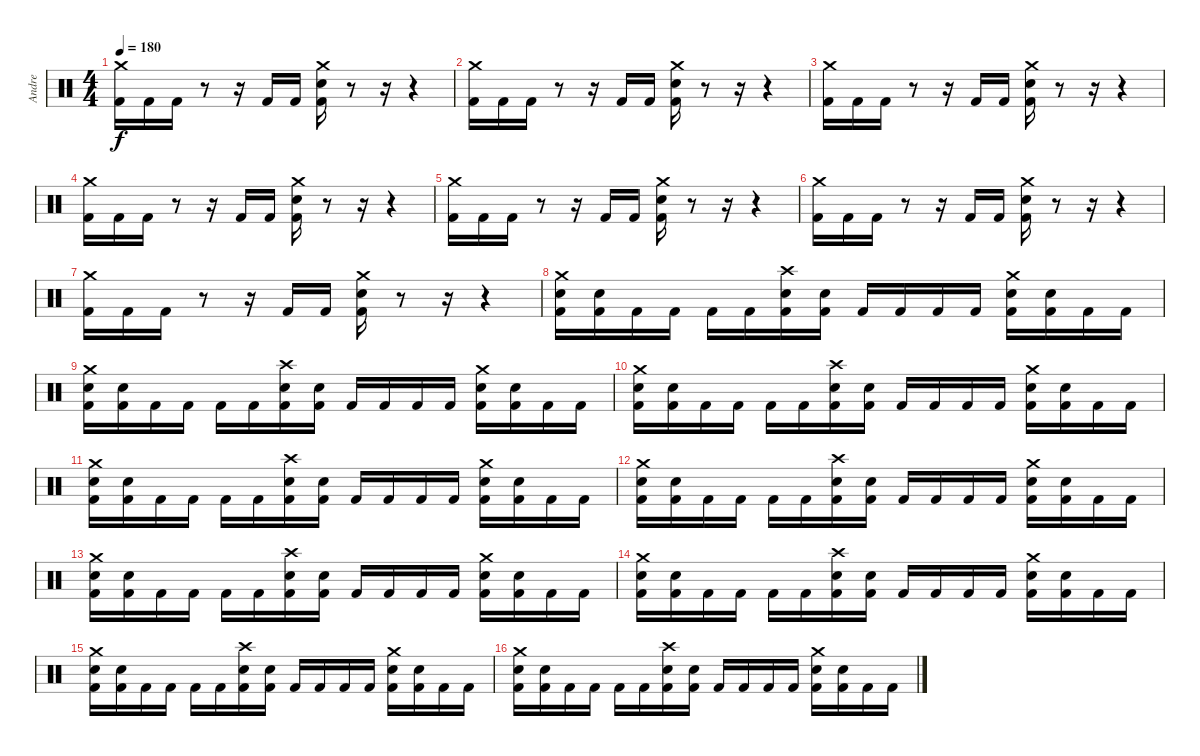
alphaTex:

\track ("Andre" "Andre") {instrument percussion}
\staff {score}
\articulation defaults
\ts (4 4)
\tempo 180
\clef neutral
\ks c
("Crash medium (hit)" "Kick (hit) 2").16{dy f} "Kick (hit) 2".16 "Kick (hit) 2".16 r.8 r.16 "Kick (hit) 2".16 "Kick (hit) 2".16 ("Crash medium (hit)" "Snare (hit) 2" "Kick (hit) 2").16 r.8 r.16 r.4 |
("Crash medium (hit)" "Kick (hit) 2").16 "Kick (hit) 2".16 "Kick (hit) 2".16 r.8 r.16 "Kick (hit) 2".16 "Kick (hit) 2".16 ("Crash medium (hit)" "Snare (hit) 2" "Kick (hit) 2").16 r.8 r.16 r.4 |
("Crash medium (hit)" "Kick (hit) 2").16 "Kick (hit) 2".16 "Kick (hit) 2".16 r.8 r.16 "Kick (hit) 2".16 "Kick (hit) 2".16 ("Crash medium (hit)" "Snare (hit) 2" "Kick (hit) 2").16 r.8 r.16 r.4 |
("Crash medium (hit)" "Kick (hit) 2").16 "Kick (hit) 2".16 "Kick (hit) 2".16 r.8 r.16 "Kick (hit) 2".16 "Kick (hit) 2".16 ("Crash medium (hit)" "Snare (hit) 2" "Kick (hit) 2").16 r.8 r.16 r.4 |
("Crash medium (hit)" "Kick (hit) 2").16 "Kick (hit) 2".16 "Kick (hit) 2".16 r.8 r.16 "Kick (hit) 2".16 "Kick (hit) 2".16 ("Crash medium (hit)" "Snare (hit) 2" "Kick (hit) 2").16 r.8 r.16 r.4 |
("Crash medium (hit)" "Kick (hit) 2").16 "Kick (hit) 2".16 "Kick (hit) 2".16 r.8 r.16 "Kick (hit) 2".16 "Kick (hit) 2".16 ("Crash medium (hit)" "Snare (hit) 2" "Kick (hit) 2").16 r.8 r.16 r.4 |
("Crash medium (hit)" "Kick (hit) 2").16 "Kick (hit) 2".16 "Kick (hit) 2".16 r.8 r.16 "Kick (hit) 2".16 "Kick (hit) 2".16 ("Crash medium (hit)" "Snare (hit) 2" "Kick (hit) 2").16 r.8 r.16 r.4 |
("Crash medium (hit)" "Snare (hit) 2" "Kick (hit) 2").16 ("Snare (hit) 2" "Kick (hit) 2").16 "Kick (hit) 2".16 "Kick (hit) 2".16 "Kick (hit) 2".16 "Kick (hit) 2".16 ("Crash high (hit)" "Snare (hit) 2" "Kick (hit) 2").16 ("Snare (hit) 2" "Kick (hit) 2").16 "Kick (hit) 2".16 "Kick (hit) 2".16 "Kick (hit) 2".16 "Kick (hit) 2".16 ("Crash medium (hit)" "Snare (hit) 2" "Kick (hit) 2").16 ("Snare (hit) 2" "Kick (hit) 2").16 "Kick (hit) 2".16 "Kick (hit) 2".16 |
("Crash medium (hit)" "Snare (hit) 2" "Kick (hit) 2").16 ("Snare (hit) 2" "Kick (hit) 2").16 "Kick (hit) 2".16 "Kick (hit) 2".16 "Kick (hit) 2".16 "Kick (hit) 2".16 ("Crash high (hit)" "Snare (hit) 2" "Kick (hit) 2").16 ("Snare (hit) 2" "Kick (hit) 2").16 "Kick (hit) 2".16 "Kick (hit) 2".16 "Kick (hit) 2".16 "Kick (hit) 2".16 ("Crash medium (hit)" "Snare (hit) 2" "Kick (hit) 2").16 ("Snare (hit) 2" "Kick (hit) 2").16 "Kick (hit) 2".16 "Kick (hit) 2".16 |
("Crash medium (hit)" "Snare (hit) 2" "Kick (hit) 2").16 ("Snare (hit) 2" "Kick (hit) 2").16 "Kick (hit) 2".16 "Kick (hit) 2".16 "Kick (hit) 2".16 "Kick (hit) 2".16 ("Crash high (hit)" "Snare (hit) 2" "Kick (hit) 2").16 ("Snare (hit) 2" "Kick (hit) 2").16 "Kick (hit) 2".16 "Kick (hit) 2".16 "Kick (hit) 2".16 "Kick (hit) 2".16 ("Crash medium (hit)" "Snare (hit) 2" "Kick (hit) 2").16 ("Snare (hit) 2" "Kick (hit) 2").16 "Kick (hit) 2".16 "Kick (hit) 2".16 |
("Crash medium (hit)" "Snare (hit) 2" "Kick (hit) 2").16 ("Snare (hit) 2" "Kick (hit) 2").16 "Kick (hit) 2".16 "Kick (hit) 2".16 "Kick (hit) 2".16 "Kick (hit) 2".16 ("Crash high (hit)" "Snare (hit) 2" "Kick (hit) 2").16 ("Snare (hit) 2" "Kick (hit) 2").16 "Kick (hit) 2".16 "Kick (hit) 2".16 "Kick (hit) 2".16 "Kick (hit) 2".16 ("Crash medium (hit)" "Snare (hit) 2" "Kick (hit) 2").16 ("Snare (hit) 2" "Kick (hit) 2").16 "Kick (hit) 2".16 "Kick (hit) 2".16 |
("Crash medium (hit)" "Snare (hit) 2" "Kick (hit) 2").16 ("Snare (hit) 2" "Kick (hit) 2").16 "Kick (hit) 2".16 "Kick (hit) 2".16 "Kick (hit) 2".16 "Kick (hit) 2".16 ("Crash high (hit)" "Snare (hit) 2" "Kick (hit) 2").16 ("Snare (hit) 2" "Kick (hit) 2").16 "Kick (hit) 2".16 "Kick (hit) 2".16 "Kick (hit) 2".16 "Kick (hit) 2".16 ("Crash medium (hit)" "Snare (hit) 2" "Kick (hit) 2").16 ("Snare (hit) 2" "Kick (hit) 2").16 "Kick (hit) 2".16 "Kick (hit) 2".16 |
("Crash medium (hit)" "Snare (hit) 2" "Kick (hit) 2").16 ("Snare (hit) 2" "Kick (hit) 2").16 "Kick (hit) 2".16 "Kick (hit) 2".16 "Kick (hit) 2".16 "Kick (hit) 2".16 ("Crash high (hit)" "Snare (hit) 2" "Kick (hit) 2").16 ("Snare (hit) 2" "Kick (hit) 2").16 "Kick (hit) 2".16 "Kick (hit) 2".16 "Kick (hit) 2".16 "Kick (hit) 2".16 ("Crash medium (hit)" "Snare (hit) 2" "Kick (hit) 2").16 ("Snare (hit) 2" "Kick (hit) 2").16 "Kick (hit) 2".16 "Kick (hit) 2".16 |
("Crash medium (hit)" "Snare (hit) 2" "Kick (hit) 2").16 ("Snare (hit) 2" "Kick (hit) 2").16 "Kick (hit) 2".16 "Kick (hit) 2".16 "Kick (hit) 2".16 "Kick (hit) 2".16 ("Crash high (hit)" "Snare (hit) 2" "Kick (hit) 2").16 ("Snare (hit) 2" "Kick (hit) 2").16 "Kick (hit) 2".16 "Kick (hit) 2".16 "Kick (hit) 2".16 "Kick (hit) 2".16 ("Crash medium (hit)" "Snare (hit) 2" "Kick (hit) 2").16 ("Snare (hit) 2" "Kick (hit) 2").16 "Kick (hit) 2".16 "Kick (hit) 2".16 |
("Crash medium (hit)" "Snare (hit) 2" "Kick (hit) 2").16 ("Snare (hit) 2" "Kick (hit) 2").16 "Kick (hit) 2".16 "Kick (hit) 2".16 "Kick (hit) 2".16 "Kick (hit) 2".16 ("Crash high (hit)" "Snare (hit) 2" "Kick (hit) 2").16 ("Snare (hit) 2" "Kick (hit) 2").16 "Kick (hit) 2".16 "Kick (hit) 2".16 "Kick (hit) 2".16 "Kick (hit) 2".16 ("Crash medium (hit)" "Snare (hit) 2" "Kick (hit) 2").16 ("Snare (hit) 2" "Kick (hit) 2").16 "Kick (hit) 2".16 "Kick (hit) 2".16 |
("Crash medium (hit)" "Snare (hit) 2" "Kick (hit) 2").16 ("Snare (hit) 2" "Kick (hit) 2").16 "Kick (hit) 2".16 "Kick (hit) 2".16 "Kick (hit) 2".16 "Kick (hit) 2".16 ("Crash high (hit)" "Snare (hit) 2" "Kick (hit) 2").16 ("Snare (hit) 2" "Kick (hit) 2").16 "Kick (hit) 2".16 "Kick (hit) 2".16 "Kick (hit) 2".16 "Kick (hit) 2".16 ("Crash medium (hit)" "Snare (hit) 2" "Kick (hit) 2").16 ("Snare (hit) 2" "Kick (hit) 2").16 "Kick (hit) 2".16 "Kick (hit) 2".16
